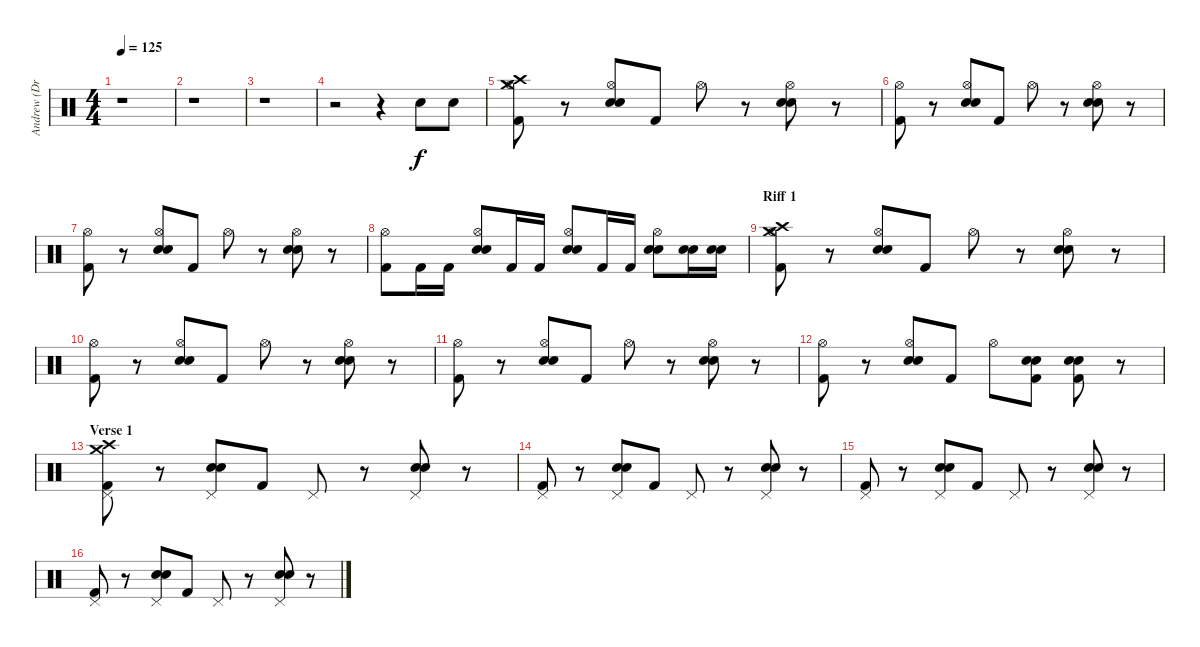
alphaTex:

\track ("Andrew (Drums)" "Andrew (Dr") {instrument percussion}
\staff {score}
\articulation defaults
\ts (4 4)
\tempo 125
\clef neutral
\ks c
r.1{dy f} |
r.1 |
r.1 |
r.2 r.4 "Electric Snare (hit)".8 "Electric Snare (hit)".8 |
("Crash high (hit)" "Crash medium (hit)" "Hi-Hat (open)" "Kick (hit) 2").8 r.8 ("Hi-Hat (open)" "Snare (hit) 2" "Electric Snare (hit)").8 "Kick (hit) 2".8 "Hi-Hat (open)".8 r.8 ("Hi-Hat (open)" "Snare (hit) 2" "Electric Snare (hit)").8 r.8 |
("Hi-Hat (open)" "Kick (hit) 2").8 r.8 ("Hi-Hat (open)" "Snare (hit) 2" "Electric Snare (hit)").8 "Kick (hit) 2".8 "Hi-Hat (open)".8 r.8 ("Hi-Hat (open)" "Snare (hit) 2" "Electric Snare (hit)").8 r.8 |
("Hi-Hat (open)" "Kick (hit) 2").8 r.8 ("Hi-Hat (open)" "Snare (hit) 2" "Electric Snare (hit)").8 "Kick (hit) 2".8 "Hi-Hat (open)".8 r.8 ("Hi-Hat (open)" "Snare (hit) 2" "Electric Snare (hit)").8 r.8 |
("Hi-Hat (open)" "Kick (hit) 2").8 "Kick (hit) 2".16 "Kick (hit) 2".16 ("Hi-Hat (open)" "Snare (hit) 2" "Electric Snare (hit)").8 "Kick (hit) 2".16 "Kick (hit) 2".16 ("Hi-Hat (open)" "Snare (hit) 2" "Electric Snare (hit)").8 "Kick (hit) 2".16 "Kick (hit) 2".16 ("Hi-Hat (open)" "Snare (hit) 2" "Electric Snare (hit)").8 ("Snare (hit) 2" "Electric Snare (hit)").16 ("Snare (hit) 2" "Electric Snare (hit)").16 |
\section ("" "Riff 1")
("Crash high (hit)" "Crash medium (hit)" "Hi-Hat (open)" "Kick (hit) 2").8 r.8 ("Hi-Hat (open)" "Snare (hit) 2" "Electric Snare (hit)").8 "Kick (hit) 2".8 "Hi-Hat (open)".8 r.8 ("Hi-Hat (open)" "Snare (hit) 2" "Electric Snare (hit)").8 r.8 |
("Hi-Hat (open)" "Kick (hit) 2").8 r.8 ("Hi-Hat (open)" "Snare (hit) 2" "Electric Snare (hit)").8 "Kick (hit) 2".8 "Hi-Hat (open)".8 r.8 ("Hi-Hat (open)" "Snare (hit) 2" "Electric Snare (hit)").8 r.8 |
("Hi-Hat (open)" "Kick (hit) 2").8 r.8 ("Hi-Hat (open)" "Snare (hit) 2" "Electric Snare (hit)").8 "Kick (hit) 2".8 "Hi-Hat (open)".8 r.8 ("Hi-Hat (open)" "Snare (hit) 2" "Electric Snare (hit)").8 r.8 |
("Hi-Hat (open)" "Kick (hit) 2").8 r.8 ("Hi-Hat (open)" "Snare (hit) 2" "Electric Snare (hit)").8 "Kick (hit) 2".8 "Hi-Hat (open)".8 ("Kick (hit) 2" "Snare (hit) 2" "Electric Snare (hit)").8 ("Kick (hit) 2" "Snare (hit) 2" "Electric Snare (hit)").8 r.8 |
\section ("" "Verse 1")
("Crash high (hit)" "Crash medium (hit)" "Pedal Hi-Hat (hit)" "Kick (hit) 2").8 r.8 ("Pedal Hi-Hat (hit)" "Snare (hit) 2" "Electric Snare (hit)").8 "Kick (hit) 2".8 "Pedal Hi-Hat (hit)".8 r.8 ("Pedal Hi-Hat (hit)" "Snare (hit) 2" "Electric Snare (hit)").8 r.8 |
("Pedal Hi-Hat (hit)" "Kick (hit) 2").8 r.8 ("Pedal Hi-Hat (hit)" "Snare (hit) 2" "Electric Snare (hit)").8 "Kick (hit) 2".8 "Pedal Hi-Hat (hit)".8 r.8 ("Pedal Hi-Hat (hit)" "Snare (hit) 2" "Electric Snare (hit)").8 r.8 |
("Pedal Hi-Hat (hit)" "Kick (hit) 2").8 r.8 ("Pedal Hi-Hat (hit)" "Snare (hit) 2" "Electric Snare (hit)").8 "Kick (hit) 2".8 "Pedal Hi-Hat (hit)".8 r.8 ("Pedal Hi-Hat (hit)" "Snare (hit) 2" "Electric Snare (hit)").8 r.8 |
("Pedal Hi-Hat (hit)" "Kick (hit) 2").8 r.8 ("Pedal Hi-Hat (hit)" "Snare (hit) 2" "Electric Snare (hit)").8 "Kick (hit) 2".8 "Pedal Hi-Hat (hit)".8 r.8 ("Pedal Hi-Hat (hit)" "Snare (hit) 2" "Electric Snare (hit)").8 r.8
